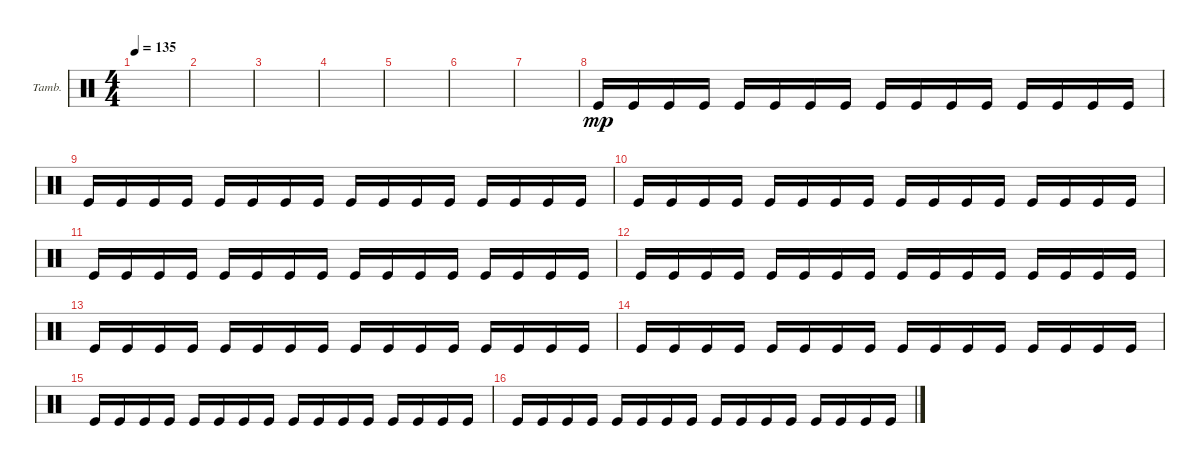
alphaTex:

\defaultSystemsLayout 4
\bracketExtendMode groupsimilarinstruments
\firstSystemTrackNameOrientation horizontal
\otherSystemsTrackNameOrientation horizontal
\track ("Tambourine" "Tamb.") {instrument percussion}
\staff {score}
\articulation defaults
\ts (4 4)
\tempo 135
\clef neutral
\scale
0.333333
\ks c
|
\scale
0.333333 |
\scale
0.333333 |
\scale
0.333333 |
\scale
0.333333 |
\scale
0.333333 |
\scale
0.333333 |
\scale
0.333333 "Kick (hit)".16{dy mp} "Kick (hit)".16 "Kick (hit)".16 "Kick (hit)".16 "Kick (hit)".16 "Kick (hit)".16 "Kick (hit)".16 "Kick (hit)".16 "Kick (hit)".16 "Kick (hit)".16 "Kick (hit)".16 "Kick (hit)".16 "Kick (hit)".16 "Kick (hit)".16 "Kick (hit)".16 "Kick (hit)".16 |
\scale
0.333333 "Kick (hit)".16 "Kick (hit)".16 "Kick (hit)".16 "Kick (hit)".16 "Kick (hit)".16 "Kick (hit)".16 "Kick (hit)".16 "Kick (hit)".16 "Kick (hit)".16 "Kick (hit)".16 "Kick (hit)".16 "Kick (hit)".16 "Kick (hit)".16 "Kick (hit)".16 "Kick (hit)".16 "Kick (hit)".16 |
\scale
0.333333 "Kick (hit)".16 "Kick (hit)".16 "Kick (hit)".16 "Kick (hit)".16 "Kick (hit)".16 "Kick (hit)".16 "Kick (hit)".16 "Kick (hit)".16 "Kick (hit)".16 "Kick (hit)".16 "Kick (hit)".16 "Kick (hit)".16 "Kick (hit)".16 "Kick (hit)".16 "Kick (hit)".16 "Kick (hit)".16 |
\scale
0.333333 "Kick (hit)".16 "Kick (hit)".16 "Kick (hit)".16 "Kick (hit)".16 "Kick (hit)".16 "Kick (hit)".16 "Kick (hit)".16 "Kick (hit)".16 "Kick (hit)".16 "Kick (hit)".16 "Kick (hit)".16 "Kick (hit)".16 "Kick (hit)".16 "Kick (hit)".16 "Kick (hit)".16 "Kick (hit)".16 |
"Kick (hit)".16 "Kick (hit)".16 "Kick (hit)".16 "Kick (hit)".16 "Kick (hit)".16 "Kick (hit)".16 "Kick (hit)".16 "Kick (hit)".16 "Kick (hit)".16 "Kick (hit)".16 "Kick (hit)".16 "Kick (hit)".16 "Kick (hit)".16 "Kick (hit)".16 "Kick (hit)".16 "Kick (hit)".16 |
"Kick (hit)".16 "Kick (hit)".16 "Kick (hit)".16 "Kick (hit)".16 "Kick (hit)".16 "Kick (hit)".16 "Kick (hit)".16 "Kick (hit)".16 "Kick (hit)".16 "Kick (hit)".16 "Kick (hit)".16 "Kick (hit)".16 "Kick (hit)".16 "Kick (hit)".16 "Kick (hit)".16 "Kick (hit)".16 |
"Kick (hit)".16 "Kick (hit)".16 "Kick (hit)".16 "Kick (hit)".16 "Kick (hit)".16 "Kick (hit)".16 "Kick (hit)".16 "Kick (hit)".16 "Kick (hit)".16 "Kick (hit)".16 "Kick (hit)".16 "Kick (hit)".16 "Kick (hit)".16 "Kick (hit)".16 "Kick (hit)".16 "Kick (hit)".16 |
"Kick (hit)".16 "Kick (hit)".16 "Kick (hit)".16 "Kick (hit)".16 "Kick (hit)".16 "Kick (hit)".16 "Kick (hit)".16 "Kick (hit)".16 "Kick (hit)".16 "Kick (hit)".16 "Kick (hit)".16 "Kick (hit)".16 "Kick (hit)".16 "Kick (hit)".16 "Kick (hit)".16 "Kick (hit)".16 |
"Kick (hit)".16 "Kick (hit)".16 "Kick (hit)".16 "Kick (hit)".16 "Kick (hit)".16 "Kick (hit)".16 "Kick (hit)".16 "Kick (hit)".16 "Kick (hit)".16 "Kick (hit)".16 "Kick (hit)".16 "Kick (hit)".16 "Kick (hit)".16 "Kick (hit)".16 "Kick (hit)".16 "Kick (hit)".16
